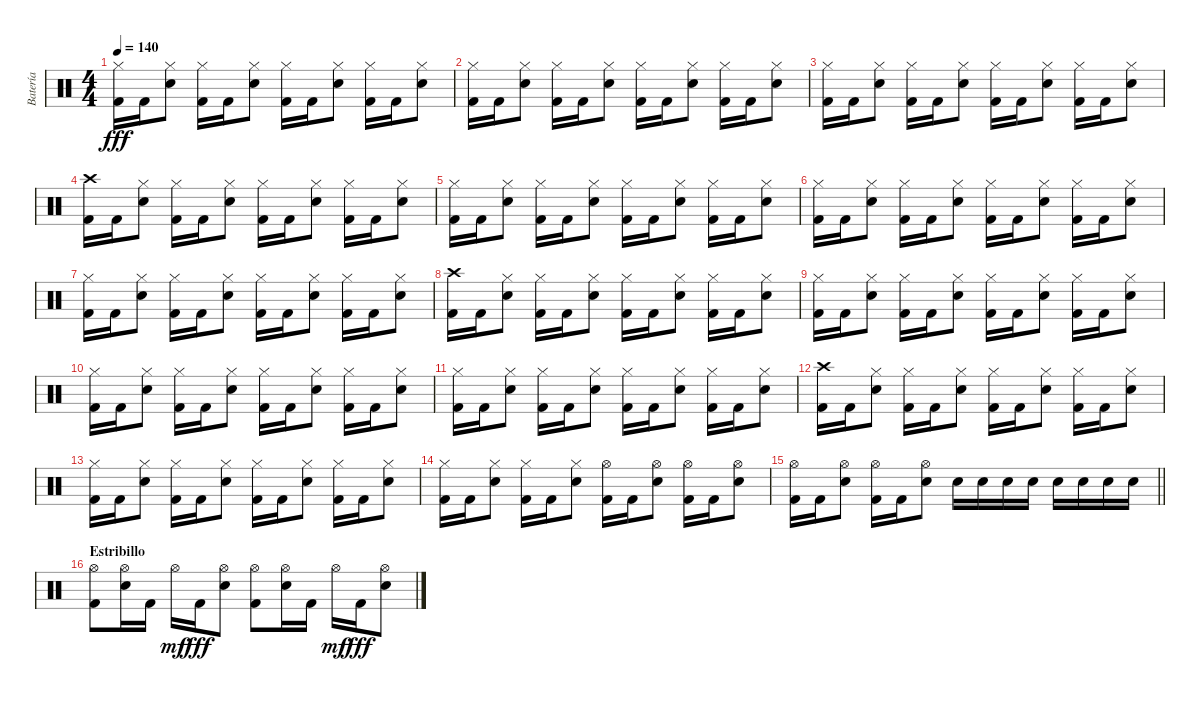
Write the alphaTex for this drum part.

\track ("Batería" "Batería") {instrument percussion}
\staff {score}
\articulation defaults
\ts (4 4)
\tempo 140
\clef neutral
\ks c
("Hi-Hat (closed)" "Kick (hit) 2").16{dy fff} "Kick (hit) 2".16 ("Hi-Hat (closed)" "Electric Snare (hit)").8 ("Hi-Hat (closed)" "Kick (hit) 2").16 "Kick (hit) 2".16 ("Hi-Hat (closed)" "Electric Snare (hit)").8 ("Hi-Hat (closed)" "Kick (hit) 2").16 "Kick (hit) 2".16 ("Hi-Hat (closed)" "Electric Snare (hit)").8 ("Hi-Hat (closed)" "Kick (hit) 2").16 "Kick (hit) 2".16 ("Hi-Hat (closed)" "Electric Snare (hit)").8 |
("Hi-Hat (closed)" "Kick (hit) 2").16 "Kick (hit) 2".16 ("Hi-Hat (closed)" "Electric Snare (hit)").8 ("Hi-Hat (closed)" "Kick (hit) 2").16 "Kick (hit) 2".16 ("Hi-Hat (closed)" "Electric Snare (hit)").8 ("Hi-Hat (closed)" "Kick (hit) 2").16 "Kick (hit) 2".16 ("Hi-Hat (closed)" "Electric Snare (hit)").8 ("Hi-Hat (closed)" "Kick (hit) 2").16 "Kick (hit) 2".16 ("Hi-Hat (closed)" "Electric Snare (hit)").8 |
("Hi-Hat (closed)" "Kick (hit) 2").16 "Kick (hit) 2".16 ("Hi-Hat (closed)" "Electric Snare (hit)").8 ("Hi-Hat (closed)" "Kick (hit) 2").16 "Kick (hit) 2".16 ("Hi-Hat (closed)" "Electric Snare (hit)").8 ("Hi-Hat (closed)" "Kick (hit) 2").16 "Kick (hit) 2".16 ("Hi-Hat (closed)" "Electric Snare (hit)").8 ("Hi-Hat (closed)" "Kick (hit) 2").16 "Kick (hit) 2".16 ("Hi-Hat (closed)" "Electric Snare (hit)").8 |
("Crash high (hit)" "Kick (hit) 2").16 "Kick (hit) 2".16 ("Hi-Hat (closed)" "Electric Snare (hit)").8 ("Hi-Hat (closed)" "Kick (hit) 2").16 "Kick (hit) 2".16 ("Hi-Hat (closed)" "Electric Snare (hit)").8 ("Hi-Hat (closed)" "Kick (hit) 2").16 "Kick (hit) 2".16 ("Hi-Hat (closed)" "Electric Snare (hit)").8 ("Hi-Hat (closed)" "Kick (hit) 2").16 "Kick (hit) 2".16 ("Hi-Hat (closed)" "Electric Snare (hit)").8 |
("Hi-Hat (closed)" "Kick (hit) 2").16 "Kick (hit) 2".16 ("Hi-Hat (closed)" "Electric Snare (hit)").8 ("Hi-Hat (closed)" "Kick (hit) 2").16 "Kick (hit) 2".16 ("Hi-Hat (closed)" "Electric Snare (hit)").8 ("Hi-Hat (closed)" "Kick (hit) 2").16 "Kick (hit) 2".16 ("Hi-Hat (closed)" "Electric Snare (hit)").8 ("Hi-Hat (closed)" "Kick (hit) 2").16 "Kick (hit) 2".16 ("Hi-Hat (closed)" "Electric Snare (hit)").8 |
("Hi-Hat (closed)" "Kick (hit) 2").16 "Kick (hit) 2".16 ("Hi-Hat (closed)" "Electric Snare (hit)").8 ("Hi-Hat (closed)" "Kick (hit) 2").16 "Kick (hit) 2".16 ("Hi-Hat (closed)" "Electric Snare (hit)").8 ("Hi-Hat (closed)" "Kick (hit) 2").16 "Kick (hit) 2".16 ("Hi-Hat (closed)" "Electric Snare (hit)").8 ("Hi-Hat (closed)" "Kick (hit) 2").16 "Kick (hit) 2".16 ("Hi-Hat (closed)" "Electric Snare (hit)").8 |
("Hi-Hat (closed)" "Kick (hit) 2").16 "Kick (hit) 2".16 ("Hi-Hat (closed)" "Electric Snare (hit)").8 ("Hi-Hat (closed)" "Kick (hit) 2").16 "Kick (hit) 2".16 ("Hi-Hat (closed)" "Electric Snare (hit)").8 ("Hi-Hat (closed)" "Kick (hit) 2").16 "Kick (hit) 2".16 ("Hi-Hat (closed)" "Electric Snare (hit)").8 ("Hi-Hat (closed)" "Kick (hit) 2").16 "Kick (hit) 2".16 ("Hi-Hat (closed)" "Electric Snare (hit)").8 |
("Crash high (hit)" "Kick (hit) 2").16 "Kick (hit) 2".16 ("Hi-Hat (closed)" "Electric Snare (hit)").8 ("Hi-Hat (closed)" "Kick (hit) 2").16 "Kick (hit) 2".16 ("Hi-Hat (closed)" "Electric Snare (hit)").8 ("Hi-Hat (closed)" "Kick (hit) 2").16 "Kick (hit) 2".16 ("Hi-Hat (closed)" "Electric Snare (hit)").8 ("Hi-Hat (closed)" "Kick (hit) 2").16 "Kick (hit) 2".16 ("Hi-Hat (closed)" "Electric Snare (hit)").8 |
("Hi-Hat (closed)" "Kick (hit) 2").16 "Kick (hit) 2".16 ("Hi-Hat (closed)" "Electric Snare (hit)").8 ("Hi-Hat (closed)" "Kick (hit) 2").16 "Kick (hit) 2".16 ("Hi-Hat (closed)" "Electric Snare (hit)").8 ("Hi-Hat (closed)" "Kick (hit) 2").16 "Kick (hit) 2".16 ("Hi-Hat (closed)" "Electric Snare (hit)").8 ("Hi-Hat (closed)" "Kick (hit) 2").16 "Kick (hit) 2".16 ("Hi-Hat (closed)" "Electric Snare (hit)").8 |
("Hi-Hat (closed)" "Kick (hit) 2").16 "Kick (hit) 2".16 ("Hi-Hat (closed)" "Electric Snare (hit)").8 ("Hi-Hat (closed)" "Kick (hit) 2").16 "Kick (hit) 2".16 ("Hi-Hat (closed)" "Electric Snare (hit)").8 ("Hi-Hat (closed)" "Kick (hit) 2").16 "Kick (hit) 2".16 ("Hi-Hat (closed)" "Electric Snare (hit)").8 ("Hi-Hat (closed)" "Kick (hit) 2").16 "Kick (hit) 2".16 ("Hi-Hat (closed)" "Electric Snare (hit)").8 |
("Hi-Hat (closed)" "Kick (hit) 2").16 "Kick (hit) 2".16 ("Hi-Hat (closed)" "Electric Snare (hit)").8 ("Hi-Hat (closed)" "Kick (hit) 2").16 "Kick (hit) 2".16 ("Hi-Hat (closed)" "Electric Snare (hit)").8 ("Hi-Hat (closed)" "Kick (hit) 2").16 "Kick (hit) 2".16 ("Hi-Hat (closed)" "Electric Snare (hit)").8 ("Hi-Hat (closed)" "Kick (hit) 2").16 "Kick (hit) 2".16 ("Hi-Hat (closed)" "Electric Snare (hit)").8 |
("Crash high (hit)" "Kick (hit) 2").16 "Kick (hit) 2".16 ("Hi-Hat (closed)" "Electric Snare (hit)").8 ("Hi-Hat (closed)" "Kick (hit) 2").16 "Kick (hit) 2".16 ("Hi-Hat (closed)" "Electric Snare (hit)").8 ("Hi-Hat (closed)" "Kick (hit) 2").16 "Kick (hit) 2".16 ("Hi-Hat (closed)" "Electric Snare (hit)").8 ("Hi-Hat (closed)" "Kick (hit) 2").16 "Kick (hit) 2".16 ("Hi-Hat (closed)" "Electric Snare (hit)").8 |
("Hi-Hat (closed)" "Kick (hit) 2").16 "Kick (hit) 2".16 ("Hi-Hat (closed)" "Electric Snare (hit)").8 ("Hi-Hat (closed)" "Kick (hit) 2").16 "Kick (hit) 2".16 ("Hi-Hat (closed)" "Electric Snare (hit)").8 ("Hi-Hat (closed)" "Kick (hit) 2").16 "Kick (hit) 2".16 ("Hi-Hat (closed)" "Electric Snare (hit)").8 ("Hi-Hat (closed)" "Kick (hit) 2").16 "Kick (hit) 2".16 ("Hi-Hat (closed)" "Electric Snare (hit)").8 |
("Hi-Hat (closed)" "Kick (hit) 2").16 "Kick (hit) 2".16 ("Hi-Hat (closed)" "Electric Snare (hit)").8 ("Hi-Hat (closed)" "Kick (hit) 2").16 "Kick (hit) 2".16 ("Hi-Hat (closed)" "Electric Snare (hit)").8 ("Hi-Hat (open)" "Kick (hit) 2").16 "Kick (hit) 2".16 ("Hi-Hat (open)" "Electric Snare (hit)").8 ("Hi-Hat (open)" "Kick (hit) 2").16 "Kick (hit) 2".16 ("Hi-Hat (open)" "Electric Snare (hit)").8 |
\barLineRight lightlight
("Hi-Hat (open)" "Kick (hit) 2").16 "Kick (hit) 2".16 ("Hi-Hat (open)" "Electric Snare (hit)").8 ("Hi-Hat (open)" "Kick (hit) 2").16 "Kick (hit) 2".16 ("Hi-Hat (open)" "Electric Snare (hit)").8 "Electric Snare (hit)".16 "Electric Snare (hit)".16 "Electric Snare (hit)".16 "Electric Snare (hit)".16 "Electric Snare (hit)".16 "Electric Snare (hit)".16 "Electric Snare (hit)".16 "Electric Snare (hit)".16 |
\section ("" "Estribillo")
("Hi-Hat (open)" "Kick (hit) 2").8 ("Hi-Hat (open)" "Electric Snare (hit)").16 "Kick (hit) 2".16 "Hi-Hat (open)".16{dy mf} "Kick (hit) 2".16{dy fff} ("Hi-Hat (open)" "Electric Snare (hit)").8 ("Hi-Hat (open)" "Kick (hit) 2").8 ("Hi-Hat (open)" "Electric Snare (hit)").16 "Kick (hit) 2".16 "Hi-Hat (open)".16{dy mf} "Kick (hit) 2".16{dy fff} ("Hi-Hat (open)" "Electric Snare (hit)").8
